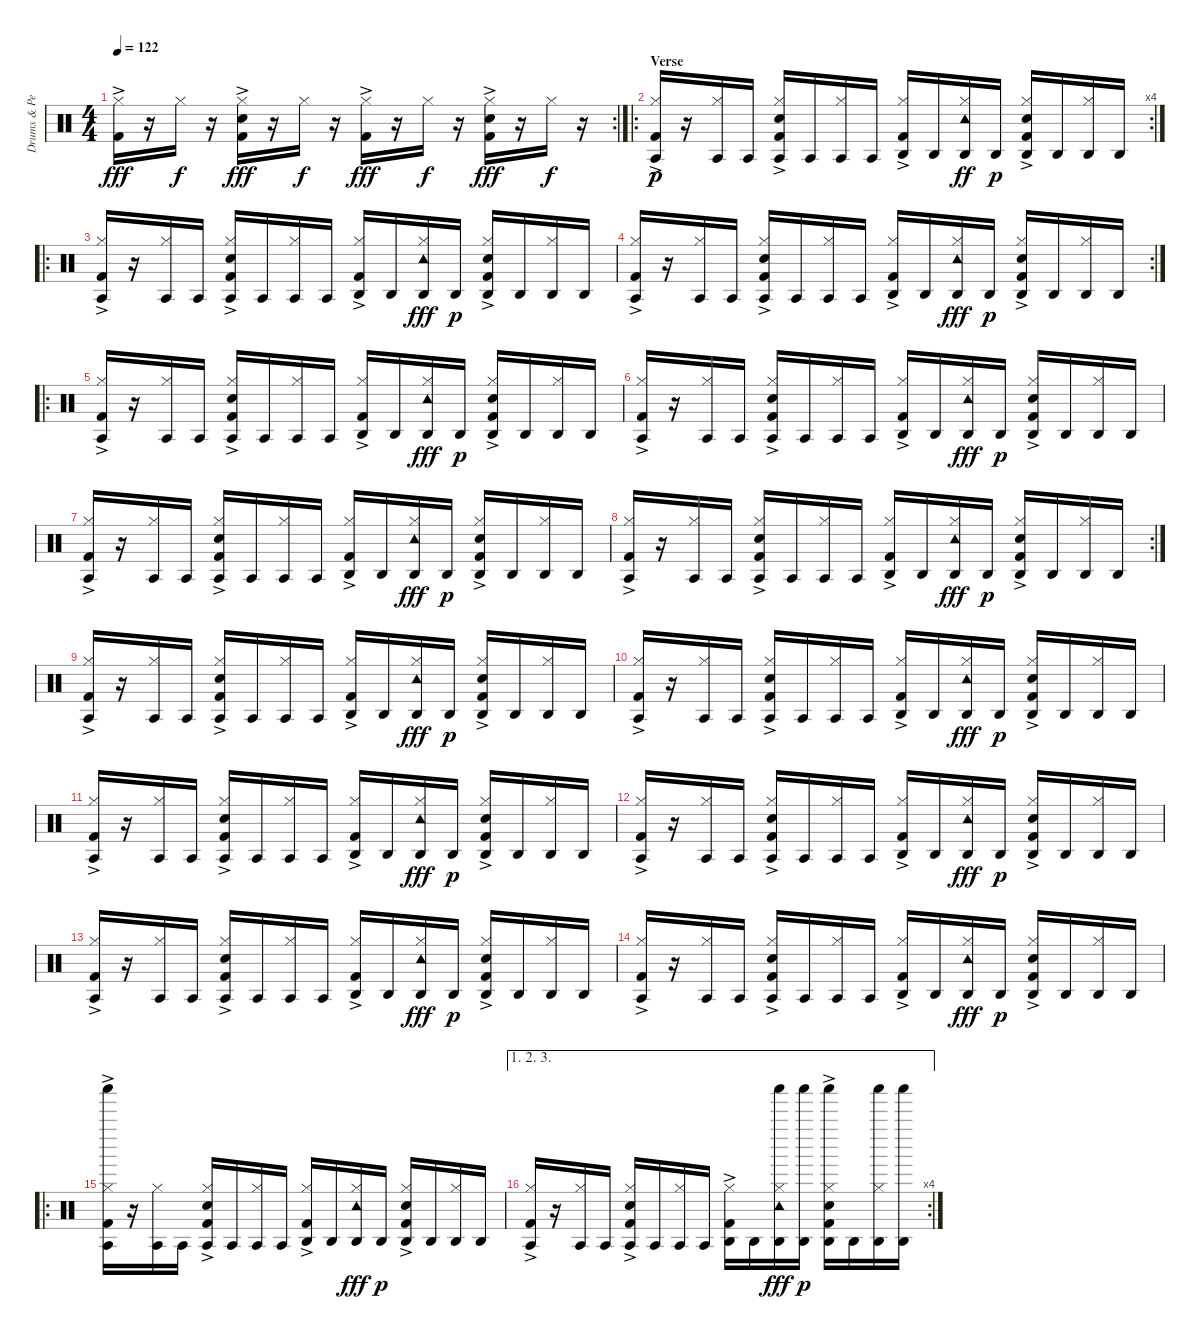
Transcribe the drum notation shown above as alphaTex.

\track ("Drums & Percussion" "Drums & Pe") {instrument percussion}
\staff {score}
\articulation defaults
\rc 2
\ts (4 4)
\tempo 122
\clef neutral
\ks c
("Hi-Hat (closed)"{ac} "Kick (hit) 2").16{dy fff} r.16 "Hi-Hat (closed)".16{dy f} r.16 ("Hi-Hat (closed)"{ac} "Electric Snare (hit)" "Kick (hit) 2").16{dy fff} r.16 "Hi-Hat (closed)".16{dy f} r.16 ("Hi-Hat (closed)"{ac} "Kick (hit) 2").16{dy fff} r.16 "Hi-Hat (closed)".16{dy f} r.16 ("Hi-Hat (closed)"{ac} "Electric Snare (hit)" "Kick (hit) 2").16{dy fff} r.16 "Hi-Hat (closed)".16{dy f} r.16 |
\ro
\rc 4
\section ("" "Verse")
("Hi-Hat (closed)"{ac} "Agogo tow (hit)" "Kick (hit) 2").16{dy p} r.16 ("Hi-Hat (closed)" "Agogo tow (hit)").16 "Agogo tow (hit)".16 ("Hi-Hat (closed)"{ac} "Agogo tow (hit)" "Electric Snare (hit)" "Kick (hit) 2").16 "Agogo tow (hit)".16 ("Hi-Hat (closed)" "Agogo tow (hit)").16 "Agogo tow (hit)".16 ("Hi-Hat (closed)"{ac} "Agogo high (hit)" "Kick (hit) 2").16 "Agogo high (hit)".16 ("Hi-Hat (closed)" "Agogo high (hit)" "Tambourine (hit)").16{dy ff} "Agogo high (hit)".16{dy p} ("Hi-Hat (closed)"{ac} "Agogo high (hit)" "Electric Snare (hit)" "Kick (hit) 2").16 "Agogo high (hit)".16 ("Hi-Hat (closed)" "Agogo high (hit)").16 "Agogo high (hit)".16 |
\ro
("Hi-Hat (closed)"{ac} "Agogo tow (hit)" "Kick (hit) 2").16 r.16 ("Hi-Hat (closed)" "Agogo tow (hit)").16 "Agogo tow (hit)".16 ("Hi-Hat (closed)"{ac} "Agogo tow (hit)" "Electric Snare (hit)" "Kick (hit) 2").16 "Agogo tow (hit)".16 ("Hi-Hat (closed)" "Agogo tow (hit)").16 "Agogo tow (hit)".16 ("Hi-Hat (closed)"{ac} "Agogo high (hit)" "Kick (hit) 2").16 "Agogo high (hit)".16 ("Hi-Hat (closed)" "Agogo high (hit)" "Tambourine (hit)").16{dy fff} "Agogo high (hit)".16{dy p} ("Hi-Hat (closed)"{ac} "Agogo high (hit)" "Electric Snare (hit)" "Kick (hit) 2").16 "Agogo high (hit)".16 ("Hi-Hat (closed)" "Agogo high (hit)").16 "Agogo high (hit)".16 |
\rc 2
("Hi-Hat (closed)"{ac} "Agogo tow (hit)" "Kick (hit) 2").16 r.16 ("Hi-Hat (closed)" "Agogo tow (hit)").16 "Agogo tow (hit)".16 ("Hi-Hat (closed)"{ac} "Agogo tow (hit)" "Electric Snare (hit)" "Kick (hit) 2").16 "Agogo tow (hit)".16 ("Hi-Hat (closed)" "Agogo tow (hit)").16 "Agogo tow (hit)".16 ("Hi-Hat (closed)"{ac} "Agogo high (hit)" "Kick (hit) 2").16 "Agogo high (hit)".16 ("Hi-Hat (closed)" "Agogo high (hit)" "Tambourine (hit)").16{dy fff} "Agogo high (hit)".16{dy p} ("Hi-Hat (closed)"{ac} "Agogo high (hit)" "Electric Snare (hit)" "Kick (hit) 2").16 "Agogo high (hit)".16 ("Hi-Hat (closed)" "Agogo high (hit)").16 "Agogo high (hit)".16 |
\ro
("Hi-Hat (closed)"{ac} "Agogo tow (hit)" "Kick (hit) 2").16 r.16 ("Hi-Hat (closed)" "Agogo tow (hit)").16 "Agogo tow (hit)".16 ("Hi-Hat (closed)"{ac} "Agogo tow (hit)" "Electric Snare (hit)" "Kick (hit) 2").16 "Agogo tow (hit)".16 ("Hi-Hat (closed)" "Agogo tow (hit)").16 "Agogo tow (hit)".16 ("Hi-Hat (closed)"{ac} "Agogo high (hit)" "Kick (hit) 2").16 "Agogo high (hit)".16 ("Hi-Hat (closed)" "Agogo high (hit)" "Tambourine (hit)").16{dy fff} "Agogo high (hit)".16{dy p} ("Hi-Hat (closed)"{ac} "Agogo high (hit)" "Electric Snare (hit)" "Kick (hit) 2").16 "Agogo high (hit)".16 ("Hi-Hat (closed)" "Agogo high (hit)").16 "Agogo high (hit)".16 |
("Hi-Hat (closed)"{ac} "Agogo tow (hit)" "Kick (hit) 2").16 r.16 ("Hi-Hat (closed)" "Agogo tow (hit)").16 "Agogo tow (hit)".16 ("Hi-Hat (closed)"{ac} "Agogo tow (hit)" "Electric Snare (hit)" "Kick (hit) 2").16 "Agogo tow (hit)".16 ("Hi-Hat (closed)" "Agogo tow (hit)").16 "Agogo tow (hit)".16 ("Hi-Hat (closed)"{ac} "Agogo high (hit)" "Kick (hit) 2").16 "Agogo high (hit)".16 ("Hi-Hat (closed)" "Agogo high (hit)" "Tambourine (hit)").16{dy fff} "Agogo high (hit)".16{dy p} ("Hi-Hat (closed)"{ac} "Agogo high (hit)" "Electric Snare (hit)" "Kick (hit) 2").16 "Agogo high (hit)".16 ("Hi-Hat (closed)" "Agogo high (hit)").16 "Agogo high (hit)".16 |
("Hi-Hat (closed)"{ac} "Agogo tow (hit)" "Kick (hit) 2").16 r.16 ("Hi-Hat (closed)" "Agogo tow (hit)").16 "Agogo tow (hit)".16 ("Hi-Hat (closed)"{ac} "Agogo tow (hit)" "Electric Snare (hit)" "Kick (hit) 2").16 "Agogo tow (hit)".16 ("Hi-Hat (closed)" "Agogo tow (hit)").16 "Agogo tow (hit)".16 ("Hi-Hat (closed)"{ac} "Agogo high (hit)" "Kick (hit) 2").16 "Agogo high (hit)".16 ("Hi-Hat (closed)" "Agogo high (hit)" "Tambourine (hit)").16{dy fff} "Agogo high (hit)".16{dy p} ("Hi-Hat (closed)"{ac} "Agogo high (hit)" "Electric Snare (hit)" "Kick (hit) 2").16 "Agogo high (hit)".16 ("Hi-Hat (closed)" "Agogo high (hit)").16 "Agogo high (hit)".16 |
\rc 2
("Hi-Hat (closed)"{ac} "Agogo tow (hit)" "Kick (hit) 2").16 r.16 ("Hi-Hat (closed)" "Agogo tow (hit)").16 "Agogo tow (hit)".16 ("Hi-Hat (closed)"{ac} "Agogo tow (hit)" "Electric Snare (hit)" "Kick (hit) 2").16 "Agogo tow (hit)".16 ("Hi-Hat (closed)" "Agogo tow (hit)").16 "Agogo tow (hit)".16 ("Hi-Hat (closed)"{ac} "Agogo high (hit)" "Kick (hit) 2").16 "Agogo high (hit)".16 ("Hi-Hat (closed)" "Agogo high (hit)" "Tambourine (hit)").16{dy fff} "Agogo high (hit)".16{dy p} ("Hi-Hat (closed)"{ac} "Agogo high (hit)" "Electric Snare (hit)" "Kick (hit) 2").16 "Agogo high (hit)".16 ("Hi-Hat (closed)" "Agogo high (hit)").16 "Agogo high (hit)".16 |
("Hi-Hat (closed)"{ac} "Agogo tow (hit)" "Kick (hit) 2").16 r.16 ("Hi-Hat (closed)" "Agogo tow (hit)").16 "Agogo tow (hit)".16 ("Hi-Hat (closed)"{ac} "Agogo tow (hit)" "Electric Snare (hit)" "Kick (hit) 2").16 "Agogo tow (hit)".16 ("Hi-Hat (closed)" "Agogo tow (hit)").16 "Agogo tow (hit)".16 ("Hi-Hat (closed)"{ac} "Agogo high (hit)" "Kick (hit) 2").16 "Agogo high (hit)".16 ("Hi-Hat (closed)" "Agogo high (hit)" "Tambourine (hit)").16{dy fff} "Agogo high (hit)".16{dy p} ("Hi-Hat (closed)"{ac} "Agogo high (hit)" "Electric Snare (hit)" "Kick (hit) 2").16 "Agogo high (hit)".16 ("Hi-Hat (closed)" "Agogo high (hit)").16 "Agogo high (hit)".16 |
("Hi-Hat (closed)"{ac} "Agogo tow (hit)" "Kick (hit) 2").16 r.16 ("Hi-Hat (closed)" "Agogo tow (hit)").16 "Agogo tow (hit)".16 ("Hi-Hat (closed)"{ac} "Agogo tow (hit)" "Electric Snare (hit)" "Kick (hit) 2").16 "Agogo tow (hit)".16 ("Hi-Hat (closed)" "Agogo tow (hit)").16 "Agogo tow (hit)".16 ("Hi-Hat (closed)"{ac} "Agogo high (hit)" "Kick (hit) 2").16 "Agogo high (hit)".16 ("Hi-Hat (closed)" "Agogo high (hit)" "Tambourine (hit)").16{dy fff} "Agogo high (hit)".16{dy p} ("Hi-Hat (closed)"{ac} "Agogo high (hit)" "Electric Snare (hit)" "Kick (hit) 2").16 "Agogo high (hit)".16 ("Hi-Hat (closed)" "Agogo high (hit)").16 "Agogo high (hit)".16 |
("Hi-Hat (closed)"{ac} "Agogo tow (hit)" "Kick (hit) 2").16 r.16 ("Hi-Hat (closed)" "Agogo tow (hit)").16 "Agogo tow (hit)".16 ("Hi-Hat (closed)"{ac} "Agogo tow (hit)" "Electric Snare (hit)" "Kick (hit) 2").16 "Agogo tow (hit)".16 ("Hi-Hat (closed)" "Agogo tow (hit)").16 "Agogo tow (hit)".16 ("Hi-Hat (closed)"{ac} "Agogo high (hit)" "Kick (hit) 2").16 "Agogo high (hit)".16 ("Hi-Hat (closed)" "Agogo high (hit)" "Tambourine (hit)").16{dy fff} "Agogo high (hit)".16{dy p} ("Hi-Hat (closed)"{ac} "Agogo high (hit)" "Electric Snare (hit)" "Kick (hit) 2").16 "Agogo high (hit)".16 ("Hi-Hat (closed)" "Agogo high (hit)").16 "Agogo high (hit)".16 |
("Hi-Hat (closed)"{ac} "Agogo tow (hit)" "Kick (hit) 2").16 r.16 ("Hi-Hat (closed)" "Agogo tow (hit)").16 "Agogo tow (hit)".16 ("Hi-Hat (closed)"{ac} "Agogo tow (hit)" "Electric Snare (hit)" "Kick (hit) 2").16 "Agogo tow (hit)".16 ("Hi-Hat (closed)" "Agogo tow (hit)").16 "Agogo tow (hit)".16 ("Hi-Hat (closed)"{ac} "Agogo high (hit)" "Kick (hit) 2").16 "Agogo high (hit)".16 ("Hi-Hat (closed)" "Agogo high (hit)" "Tambourine (hit)").16{dy fff} "Agogo high (hit)".16{dy p} ("Hi-Hat (closed)"{ac} "Agogo high (hit)" "Electric Snare (hit)" "Kick (hit) 2").16 "Agogo high (hit)".16 ("Hi-Hat (closed)" "Agogo high (hit)").16 "Agogo high (hit)".16 |
("Hi-Hat (closed)"{ac} "Agogo tow (hit)" "Kick (hit) 2").16 r.16 ("Hi-Hat (closed)" "Agogo tow (hit)").16 "Agogo tow (hit)".16 ("Hi-Hat (closed)"{ac} "Agogo tow (hit)" "Electric Snare (hit)" "Kick (hit) 2").16 "Agogo tow (hit)".16 ("Hi-Hat (closed)" "Agogo tow (hit)").16 "Agogo tow (hit)".16 ("Hi-Hat (closed)"{ac} "Agogo high (hit)" "Kick (hit) 2").16 "Agogo high (hit)".16 ("Hi-Hat (closed)" "Agogo high (hit)" "Tambourine (hit)").16{dy fff} "Agogo high (hit)".16{dy p} ("Hi-Hat (closed)"{ac} "Agogo high (hit)" "Electric Snare (hit)" "Kick (hit) 2").16 "Agogo high (hit)".16 ("Hi-Hat (closed)" "Agogo high (hit)").16 "Agogo high (hit)".16 |
("Hi-Hat (closed)"{ac} "Agogo tow (hit)" "Kick (hit) 2").16 r.16 ("Hi-Hat (closed)" "Agogo tow (hit)").16 "Agogo tow (hit)".16 ("Hi-Hat (closed)"{ac} "Agogo tow (hit)" "Electric Snare (hit)" "Kick (hit) 2").16 "Agogo tow (hit)".16 ("Hi-Hat (closed)" "Agogo tow (hit)").16 "Agogo tow (hit)".16 ("Hi-Hat (closed)"{ac} "Agogo high (hit)" "Kick (hit) 2").16 "Agogo high (hit)".16 ("Hi-Hat (closed)" "Agogo high (hit)" "Tambourine (hit)").16{dy fff} "Agogo high (hit)".16{dy p} ("Hi-Hat (closed)"{ac} "Agogo high (hit)" "Electric Snare (hit)" "Kick (hit) 2").16 "Agogo high (hit)".16 ("Hi-Hat (closed)" "Agogo high (hit)").16 "Agogo high (hit)".16 |
\ro
("Shaker (hit)" "Hi-Hat (closed)"{ac} "Agogo tow (hit)" "Kick (hit) 2").16 r.16 ("Hi-Hat (closed)" "Agogo tow (hit)").16 "Agogo tow (hit)".16 ("Hi-Hat (closed)"{ac} "Agogo tow (hit)" "Electric Snare (hit)" "Kick (hit) 2").16 "Agogo tow (hit)".16 ("Hi-Hat (closed)" "Agogo tow (hit)").16 "Agogo tow (hit)".16 ("Hi-Hat (closed)"{ac} "Agogo high (hit)" "Kick (hit) 2").16 "Agogo high (hit)".16 ("Hi-Hat (closed)" "Agogo high (hit)" "Tambourine (hit)").16{dy fff} "Agogo high (hit)".16{dy p} ("Hi-Hat (closed)"{ac} "Agogo high (hit)" "Electric Snare (hit)" "Kick (hit) 2").16 "Agogo high (hit)".16 ("Hi-Hat (closed)" "Agogo high (hit)").16 "Agogo high (hit)".16 |
\ae (1 2 3)
\rc 4
("Hi-Hat (closed)"{ac} "Agogo tow (hit)" "Kick (hit) 2").16 r.16 ("Hi-Hat (closed)" "Agogo tow (hit)").16 "Agogo tow (hit)".16 ("Hi-Hat (closed)"{ac} "Agogo tow (hit)" "Electric Snare (hit)" "Kick (hit) 2").16 "Agogo tow (hit)".16 ("Hi-Hat (closed)" "Agogo tow (hit)").16 "Agogo tow (hit)".16 ("Hi-Hat (closed)"{ac} "Agogo high (hit)" "Kick (hit) 2").16 "Agogo high (hit)".16 ("Shaker (hit)" "Hi-Hat (closed)" "Agogo high (hit)" "Tambourine (hit)").16{dy fff} ("Shaker (hit)" "Agogo high (hit)").16{dy p} ("Shaker (hit)" "Hi-Hat (closed)"{ac} "Agogo high (hit)" "Electric Snare (hit)" "Kick (hit) 2").16 "Agogo high (hit)".16 ("Shaker (hit)" "Hi-Hat (closed)" "Agogo high (hit)").16 ("Shaker (hit)" "Agogo high (hit)").16
